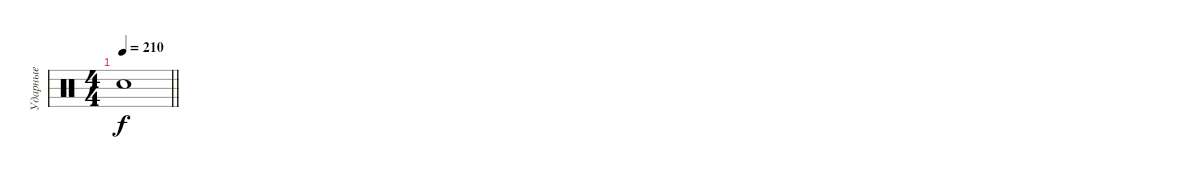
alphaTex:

\track ("Ударные" "Ударные") {instrument percussion}
\staff {score}
\articulation defaults
\ts (4 4)
\tempo 210
\clef neutral
\barLineRight lightlight
\ks c "Snare (hit)"{t}.1{dy f}
